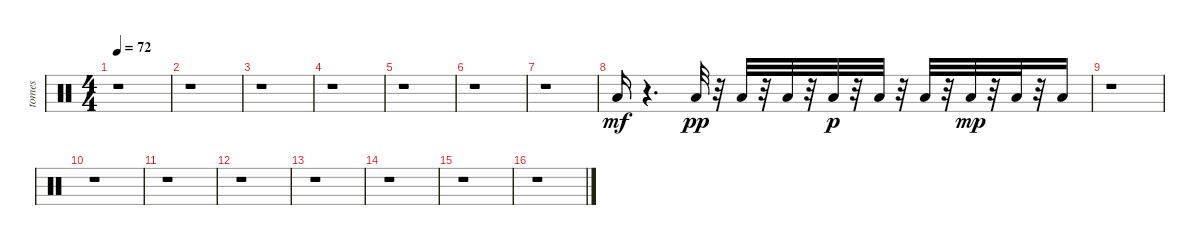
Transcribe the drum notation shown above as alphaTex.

\track ("tomes" "tomes") {instrument percussion}
\staff {score}
\articulation defaults
\ts (4 4)
\tempo 72
\clef neutral
\ks c
r.1{dy mf} |
r.1 |
r.1 |
r.1 |
r.1 |
r.1 |
r.1 |
"Low Tom (hit)".16 r.4{d} "Low Floor Tom (hit)".32{dy pp} r.32 "Low Floor Tom (hit)".32 r.32 "Low Floor Tom (hit)".32 r.32 "Low Floor Tom (hit)".32{dy p} r.32 "Low Floor Tom (hit)".32 r.32 "Low Floor Tom (hit)".32 r.32 "Low Floor Tom (hit)".32{dy mp} r.32 "Low Floor Tom (hit)".32 r.32 "Low Floor Tom (hit)".16 |
r.1 |
r.1 |
r.1 |
r.1 |
r.1 |
r.1 |
r.1 |
r.1
